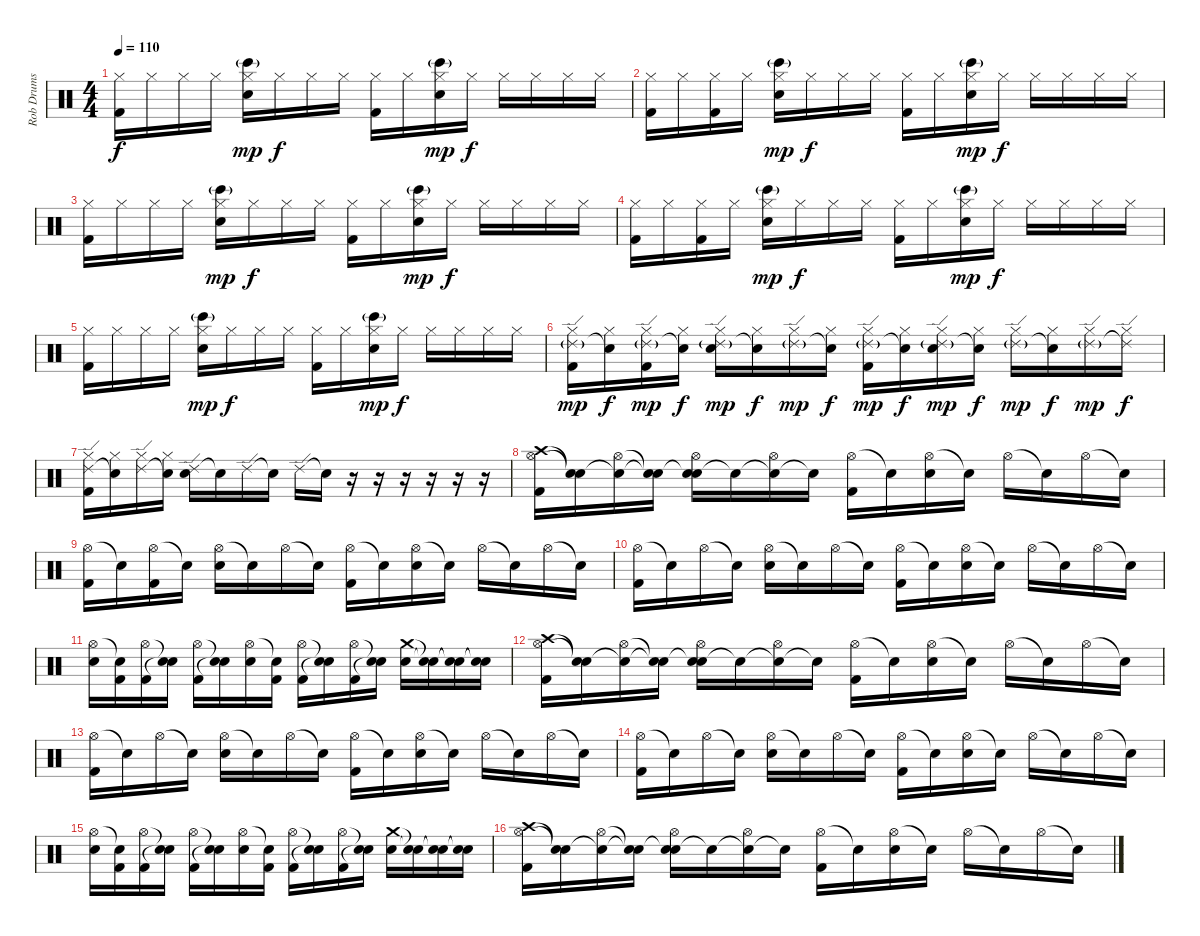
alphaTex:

\track ("Rob Drums" "Rob Drums") {instrument percussion}
\staff {score}
\articulation defaults
\ts (4 4)
\tempo 110
\clef neutral
\ks c
("Hi-Hat (closed)" "Kick (hit) 2").16{dy f} "Hi-Hat (closed)".16 "Hi-Hat (closed)".16 "Hi-Hat (closed)".16 ("Hi-Hat (closed)" "Bongo High (hit)"{g} "Electric Snare (hit)").16{dy mp} "Hi-Hat (closed)".16{dy f} "Hi-Hat (closed)".16 "Hi-Hat (closed)".16 ("Hi-Hat (closed)" "Kick (hit) 2").16 "Hi-Hat (closed)".16 ("Hi-Hat (closed)" "Bongo High (hit)"{g} "Electric Snare (hit)").16{dy mp} "Hi-Hat (closed)".16{dy f} "Hi-Hat (closed)".16 "Hi-Hat (closed)".16 "Hi-Hat (closed)".16 "Hi-Hat (closed)".16 |
("Hi-Hat (closed)" "Kick (hit) 2").16 "Hi-Hat (closed)".16 ("Hi-Hat (closed)" "Kick (hit) 2").16 "Hi-Hat (closed)".16 ("Hi-Hat (closed)" "Bongo High (hit)"{g} "Electric Snare (hit)").16{dy mp} "Hi-Hat (closed)".16{dy f} "Hi-Hat (closed)".16 "Hi-Hat (closed)".16 ("Hi-Hat (closed)" "Kick (hit) 2").16 "Hi-Hat (closed)".16 ("Hi-Hat (closed)" "Bongo High (hit)"{g} "Electric Snare (hit)").16{dy mp} "Hi-Hat (closed)".16{dy f} "Hi-Hat (closed)".16 "Hi-Hat (closed)".16 "Hi-Hat (closed)".16 "Hi-Hat (closed)".16 |
("Hi-Hat (closed)" "Kick (hit) 2").16 "Hi-Hat (closed)".16 "Hi-Hat (closed)".16 "Hi-Hat (closed)".16 ("Hi-Hat (closed)" "Bongo High (hit)"{g} "Electric Snare (hit)").16{dy mp} "Hi-Hat (closed)".16{dy f} "Hi-Hat (closed)".16 "Hi-Hat (closed)".16 ("Hi-Hat (closed)" "Kick (hit) 2").16 "Hi-Hat (closed)".16 ("Hi-Hat (closed)" "Bongo High (hit)"{g} "Electric Snare (hit)").16{dy mp} "Hi-Hat (closed)".16{dy f} "Hi-Hat (closed)".16 "Hi-Hat (closed)".16 "Hi-Hat (closed)".16 "Hi-Hat (closed)".16 |
("Hi-Hat (closed)" "Kick (hit) 2").16 "Hi-Hat (closed)".16 ("Hi-Hat (closed)" "Kick (hit) 2").16 "Hi-Hat (closed)".16 ("Hi-Hat (closed)" "Bongo High (hit)"{g} "Electric Snare (hit)").16{dy mp} "Hi-Hat (closed)".16{dy f} "Hi-Hat (closed)".16 "Hi-Hat (closed)".16 ("Hi-Hat (closed)" "Kick (hit) 2").16 "Hi-Hat (closed)".16 ("Hi-Hat (closed)" "Bongo High (hit)"{g} "Electric Snare (hit)").16{dy mp} "Hi-Hat (closed)".16{dy f} "Hi-Hat (closed)".16 "Hi-Hat (closed)".16 "Hi-Hat (closed)".16 "Hi-Hat (closed)".16 |
("Hi-Hat (closed)" "Kick (hit) 2").16 "Hi-Hat (closed)".16 "Hi-Hat (closed)".16 "Hi-Hat (closed)".16 ("Hi-Hat (closed)" "Bongo High (hit)"{g} "Electric Snare (hit)").16{dy mp} "Hi-Hat (closed)".16{dy f} "Hi-Hat (closed)".16 "Hi-Hat (closed)".16 ("Hi-Hat (closed)" "Kick (hit) 2").16 "Hi-Hat (closed)".16 ("Hi-Hat (closed)" "Bongo High (hit)"{g} "Electric Snare (hit)").16{dy mp} "Hi-Hat (closed)".16{dy f} "Hi-Hat (closed)".16 "Hi-Hat (closed)".16 "Hi-Hat (closed)".16 "Hi-Hat (closed)".16 |
("Hi-Hat (closed)" "Ride (edge) 2"{g} "Kick (hit) 2").16{dy mp} ("Hi-Hat (closed)" "Snare (hit)"{t}).16{dy f} ("Hi-Hat (closed)" "Ride (edge) 2"{g} "Kick (hit) 2").16{dy mp} ("Hi-Hat (closed)" "Snare (hit)"{t}).16{dy f} ("Hi-Hat (closed)" "Ride (edge) 2"{g} "Electric Snare (hit)").16{dy mp} ("Hi-Hat (closed)" "Snare (hit)"{t}).16{dy f} ("Hi-Hat (closed)" "Ride (edge) 2"{g}).16{dy mp} ("Hi-Hat (closed)" "Snare (hit)"{t}).16{dy f} ("Hi-Hat (closed)" "Ride (edge) 2"{g} "Kick (hit) 2").16{dy mp} ("Hi-Hat (closed)" "Snare (hit)"{t}).16{dy f} ("Hi-Hat (closed)" "Ride (edge) 2"{g} "Electric Snare (hit)").16{dy mp} ("Hi-Hat (closed)" "Snare (hit)"{t}).16{dy f} ("Hi-Hat (closed)" "Ride (edge) 2"{g}).16{dy mp} ("Hi-Hat (closed)" "Snare (hit)"{t}).16{dy f} ("Hi-Hat (closed)" "Ride (edge) 2"{g}).16{dy mp} ("Hi-Hat (closed)" "Ride (edge) 2"{t}).16{dy f} |
("Hi-Hat (closed)" "Ride (edge) 2" "Kick (hit) 2").16 ("Hi-Hat (closed)" "Snare (hit)"{t}).16 ("Hi-Hat (closed)" "Ride (edge) 2").16 ("Hi-Hat (closed)" "Snare (hit)"{t}).16 ("Ride (edge) 2" "Electric Snare (hit)").16 "Snare (hit)"{t}.16 "Ride (edge) 2".16 "Snare (hit)"{t}.16 "Ride (edge) 2".16 "Snare (hit)"{t}.16 r.16 r.16 r.16 r.16 r.16 r.16 |
("Crash high (hit)" "Hi-Hat (open)" "Kick (hit) 2").16{volume 13} ("Snare (hit)"{t} "Snare (hit)"{t}).16 ("Snare (hit)"{t} "Hi-Hat (open)").16 ("Snare (hit)"{t} "Snare (hit)"{t}).16 ("Snare (hit)"{t} "Hi-Hat (open)" "Electric Snare (hit)").16 "Snare (hit)"{t}.16 ("Snare (hit)"{t} "Hi-Hat (open)").16 "Snare (hit)"{t}.16 ("Hi-Hat (open)" "Kick (hit) 2").16 "Snare (hit)"{t}.16 ("Hi-Hat (open)" "Electric Snare (hit)").16 "Snare (hit)"{t}.16 "Hi-Hat (open)".16 "Snare (hit)"{t}.16 "Hi-Hat (open)".16 "Snare (hit)"{t}.16 |
("Hi-Hat (open)" "Kick (hit) 2").16 "Snare (hit)"{t}.16 ("Hi-Hat (open)" "Kick (hit) 2").16 "Snare (hit)"{t}.16 ("Hi-Hat (open)" "Electric Snare (hit)").16 "Snare (hit)"{t}.16 "Hi-Hat (open)".16 "Snare (hit)"{t}.16 ("Hi-Hat (open)" "Kick (hit) 2").16 "Snare (hit)"{t}.16 ("Hi-Hat (open)" "Electric Snare (hit)").16 "Snare (hit)"{t}.16 "Hi-Hat (open)".16 "Snare (hit)"{t}.16 "Hi-Hat (open)".16 "Snare (hit)"{t}.16 |
("Hi-Hat (open)" "Kick (hit) 2").16 "Snare (hit)"{t}.16 "Hi-Hat (open)".16 "Snare (hit)"{t}.16 ("Hi-Hat (open)" "Electric Snare (hit)").16 "Snare (hit)"{t}.16 "Hi-Hat (open)".16 "Snare (hit)"{t}.16 ("Hi-Hat (open)" "Kick (hit) 2").16 "Snare (hit)"{t}.16 ("Hi-Hat (open)" "Electric Snare (hit)").16 "Snare (hit)"{t}.16 "Hi-Hat (open)".16 "Snare (hit)"{t}.16 "Hi-Hat (open)".16 "Snare (hit)"{t}.16 |
("Hi-Hat (open)" "Electric Snare (hit)").16 ("Snare (hit)"{t} "Kick (hit) 2").16 ("Hi-Hat (open)" "Kick (hit) 2").16 ("Snare (hit)"{t} "Snare (hit)"{t}).16 ("Hi-Hat (open)" "Kick (hit) 2").16 ("Snare (hit)"{t} "Snare (hit)"{t}).16 ("Hi-Hat (open)" "Electric Snare (hit)").16 ("Snare (hit)"{t} "Kick (hit) 2").16 ("Hi-Hat (open)" "Kick (hit) 2").16 ("Snare (hit)"{t} "Snare (hit)"{t}).16 ("Hi-Hat (open)" "Kick (hit) 2").16 ("Snare (hit)"{t} "Snare (hit)"{t}).16 ("Crash medium (hit)" "Electric Snare (hit)").16 ("Snare (hit)"{t} "Snare (hit)"{t}).16 ("Snare (hit)"{t} "Snare (hit)"{t}).16 ("Snare (hit)"{t} "Snare (hit)"{t}).16 |
("Crash high (hit)" "Hi-Hat (open)" "Kick (hit) 2").16 ("Snare (hit)"{t} "Snare (hit)"{t}).16 ("Snare (hit)"{t} "Hi-Hat (open)").16 ("Snare (hit)"{t} "Snare (hit)"{t}).16 ("Snare (hit)"{t} "Hi-Hat (open)" "Electric Snare (hit)").16 "Snare (hit)"{t}.16 ("Snare (hit)"{t} "Hi-Hat (open)").16 "Snare (hit)"{t}.16 ("Hi-Hat (open)" "Kick (hit) 2").16 "Snare (hit)"{t}.16 ("Hi-Hat (open)" "Electric Snare (hit)").16 "Snare (hit)"{t}.16 "Hi-Hat (open)".16 "Snare (hit)"{t}.16 "Hi-Hat (open)".16 "Snare (hit)"{t}.16 |
("Hi-Hat (open)" "Kick (hit) 2").16 "Snare (hit)"{t}.16 "Hi-Hat (open)".16 "Snare (hit)"{t}.16 ("Hi-Hat (open)" "Electric Snare (hit)").16 "Snare (hit)"{t}.16 "Hi-Hat (open)".16 "Snare (hit)"{t}.16 ("Hi-Hat (open)" "Kick (hit) 2").16 "Snare (hit)"{t}.16 ("Hi-Hat (open)" "Electric Snare (hit)").16 "Snare (hit)"{t}.16 "Hi-Hat (open)".16 "Snare (hit)"{t}.16 "Hi-Hat (open)".16 "Snare (hit)"{t}.16 |
("Hi-Hat (open)" "Kick (hit) 2").16 "Snare (hit)"{t}.16 "Hi-Hat (open)".16 "Snare (hit)"{t}.16 ("Hi-Hat (open)" "Electric Snare (hit)").16 "Snare (hit)"{t}.16 "Hi-Hat (open)".16 "Snare (hit)"{t}.16 ("Hi-Hat (open)" "Kick (hit) 2").16 "Snare (hit)"{t}.16 ("Hi-Hat (open)" "Electric Snare (hit)").16 "Snare (hit)"{t}.16 "Hi-Hat (open)".16 "Snare (hit)"{t}.16 "Hi-Hat (open)".16 "Snare (hit)"{t}.16 |
("Hi-Hat (open)" "Electric Snare (hit)").16 ("Snare (hit)"{t} "Kick (hit) 2").16 ("Hi-Hat (open)" "Kick (hit) 2").16 ("Snare (hit)"{t} "Snare (hit)"{t}).16 ("Hi-Hat (open)" "Kick (hit) 2").16 ("Snare (hit)"{t} "Snare (hit)"{t}).16 ("Hi-Hat (open)" "Electric Snare (hit)").16 ("Snare (hit)"{t} "Kick (hit) 2").16 ("Hi-Hat (open)" "Kick (hit) 2").16 ("Snare (hit)"{t} "Snare (hit)"{t}).16 ("Hi-Hat (open)" "Kick (hit) 2").16 ("Snare (hit)"{t} "Snare (hit)"{t}).16 ("Crash medium (hit)" "Electric Snare (hit)").16 ("Snare (hit)"{t} "Snare (hit)"{t}).16 ("Snare (hit)"{t} "Snare (hit)"{t}).16 ("Snare (hit)"{t} "Snare (hit)"{t}).16 |
("Crash high (hit)" "Hi-Hat (open)" "Kick (hit) 2").16 ("Snare (hit)"{t} "Snare (hit)"{t}).16 ("Snare (hit)"{t} "Hi-Hat (open)").16 ("Snare (hit)"{t} "Snare (hit)"{t}).16 ("Snare (hit)"{t} "Hi-Hat (open)" "Electric Snare (hit)").16 "Snare (hit)"{t}.16 ("Snare (hit)"{t} "Hi-Hat (open)").16 "Snare (hit)"{t}.16 ("Hi-Hat (open)" "Kick (hit) 2").16 "Snare (hit)"{t}.16 ("Hi-Hat (open)" "Electric Snare (hit)").16 "Snare (hit)"{t}.16 "Hi-Hat (open)".16 "Snare (hit)"{t}.16 "Hi-Hat (open)".16 "Snare (hit)"{t}.16
